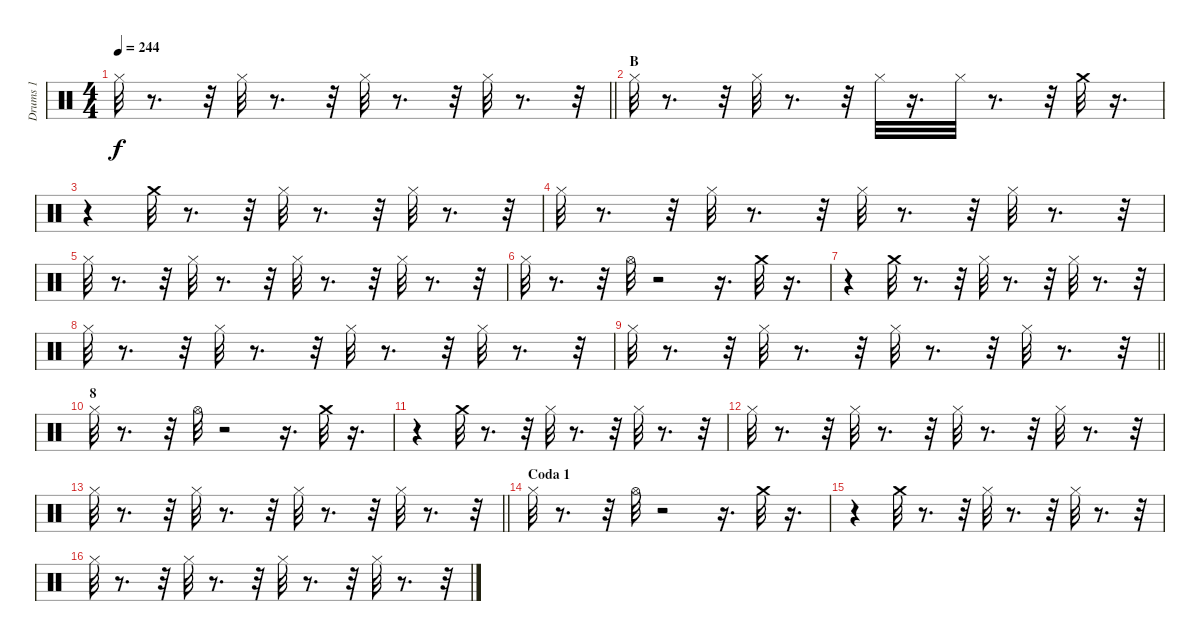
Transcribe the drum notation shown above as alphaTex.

\track ("Drums 1" "Drums 1") {instrument percussion}
\staff {score}
\articulation defaults
\ts (4 4)
\tempo 244
\clef neutral
\barLineRight lightlight
\ks c "Hi-Hat (closed)".32{dy f}
r.8{d} r.32 "Hi-Hat (closed)".32 r.8{d} r.32 "Hi-Hat (closed)".32 r.8{d} r.32 "Hi-Hat (closed)".32 r.8{d} r.32 |
\section ("" "B")
"Hi-Hat (closed)".32 r.8{d} r.32 "Hi-Hat (closed)".32 r.8{d} r.32 "Hi-Hat (closed)".32 r.16{d} "Hi-Hat (closed)".32 r.8{d} r.32 "Crash medium (hit)".32 r.16{d} |
r.4 "Crash medium (hit)".32 r.8{d} r.32 "Hi-Hat (closed)".32 r.8{d} r.32 "Hi-Hat (closed)".32 r.8{d} r.32 |
"Hi-Hat (closed)".32 r.8{d} r.32 "Hi-Hat (closed)".32 r.8{d} r.32 "Hi-Hat (closed)".32 r.8{d} r.32 "Hi-Hat (closed)".32 r.8{d} r.32 |
"Hi-Hat (closed)".32 r.8{d} r.32 "Hi-Hat (closed)".32 r.8{d} r.32 "Hi-Hat (closed)".32 r.8{d} r.32 "Hi-Hat (closed)".32 r.8{d} r.32 |
"Hi-Hat (closed)".32 r.8{d} r.32 "Hi-Hat (open)".32 r.2 r.16{d} "Crash medium (hit)".32 r.16{d} |
r.4 "Crash medium (hit)".32 r.8{d} r.32 "Hi-Hat (closed)".32 r.8{d} r.32 "Hi-Hat (closed)".32 r.8{d} r.32 |
"Hi-Hat (closed)".32 r.8{d} r.32 "Hi-Hat (closed)".32 r.8{d} r.32 "Hi-Hat (closed)".32 r.8{d} r.32 "Hi-Hat (closed)".32 r.8{d} r.32 |
\barLineRight lightlight "Hi-Hat (closed)".32
r.8{d} r.32 "Hi-Hat (closed)".32 r.8{d} r.32 "Hi-Hat (closed)".32 r.8{d} r.32 "Hi-Hat (closed)".32 r.8{d} r.32 |
\section ("" "8")
"Hi-Hat (closed)".32 r.8{d} r.32 "Hi-Hat (open)".32 r.2 r.16{d} "Crash medium (hit)".32 r.16{d} |
r.4 "Crash medium (hit)".32 r.8{d} r.32 "Hi-Hat (closed)".32 r.8{d} r.32 "Hi-Hat (closed)".32 r.8{d} r.32 |
"Hi-Hat (closed)".32 r.8{d} r.32 "Hi-Hat (closed)".32 r.8{d} r.32 "Hi-Hat (closed)".32 r.8{d} r.32 "Hi-Hat (closed)".32 r.8{d} r.32 |
\barLineRight lightlight "Hi-Hat (closed)".32
r.8{d} r.32 "Hi-Hat (closed)".32 r.8{d} r.32 "Hi-Hat (closed)".32 r.8{d} r.32 "Hi-Hat (closed)".32 r.8{d} r.32 |
\section ("" "Coda 1")
"Hi-Hat (closed)".32 r.8{d} r.32 "Hi-Hat (open)".32 r.2 r.16{d} "Crash medium (hit)".32 r.16{d} |
r.4 "Crash medium (hit)".32 r.8{d} r.32 "Hi-Hat (closed)".32 r.8{d} r.32 "Hi-Hat (closed)".32 r.8{d} r.32 |
"Hi-Hat (closed)".32 r.8{d} r.32 "Hi-Hat (closed)".32 r.8{d} r.32 "Hi-Hat (closed)".32 r.8{d} r.32 "Hi-Hat (closed)".32 r.8{d} r.32
